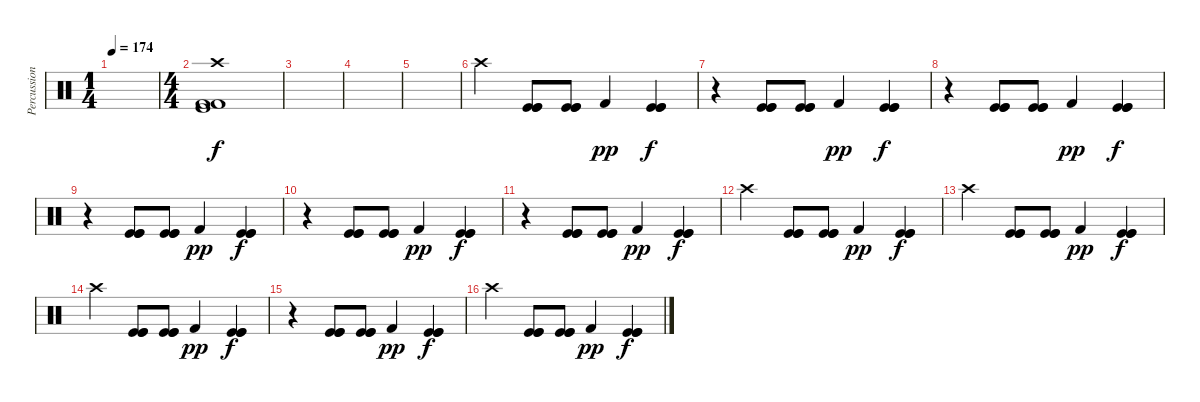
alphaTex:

\track ("Percussions" "Percussion") {instrument percussion}
\staff {score}
\articulation defaults
\ts (1 4)
\tempo 174
\clef neutral
\ks c
|
\ts (4 4)
("Crash high (hit)" "Kick (hit) 2" "Kick (hit) 2" "Kick (hit)").1 |
|
|
|
"Crash high (hit)".4{dy f} ("Kick (hit)" "Kick (hit)" "Kick (hit)").8 ("Kick (hit)" "Kick (hit)" "Kick (hit)").8 "Kick (hit) 2".4{dy pp} ("Kick (hit)" "Kick (hit)" "Kick (hit)").4{dy f} |
r.4 ("Kick (hit)" "Kick (hit)" "Kick (hit)").8 ("Kick (hit)" "Kick (hit)" "Kick (hit)").8 "Kick (hit) 2".4{dy pp} ("Kick (hit)" "Kick (hit)" "Kick (hit)").4{dy f} |
r.4 ("Kick (hit)" "Kick (hit)" "Kick (hit)").8 ("Kick (hit)" "Kick (hit)" "Kick (hit)").8 "Kick (hit) 2".4{dy pp} ("Kick (hit)" "Kick (hit)" "Kick (hit)").4{dy f} |
r.4 ("Kick (hit)" "Kick (hit)" "Kick (hit)").8 ("Kick (hit)" "Kick (hit)" "Kick (hit)").8 "Kick (hit) 2".4{dy pp} ("Kick (hit)" "Kick (hit)" "Kick (hit)").4{dy f} |
r.4 ("Kick (hit)" "Kick (hit)" "Kick (hit)").8 ("Kick (hit)" "Kick (hit)" "Kick (hit)").8 "Kick (hit) 2".4{dy pp} ("Kick (hit)" "Kick (hit)" "Kick (hit)").4{dy f} |
r.4 ("Kick (hit)" "Kick (hit)" "Kick (hit)").8 ("Kick (hit)" "Kick (hit)" "Kick (hit)").8 "Kick (hit) 2".4{dy pp} ("Kick (hit)" "Kick (hit)" "Kick (hit)").4{dy f} |
"Crash high (hit)".4 ("Kick (hit)" "Kick (hit)" "Kick (hit)").8 ("Kick (hit)" "Kick (hit)" "Kick (hit)").8 "Kick (hit) 2".4{dy pp} ("Kick (hit)" "Kick (hit)" "Kick (hit)").4{dy f} |
"Crash high (hit)".4 ("Kick (hit)" "Kick (hit)" "Kick (hit)").8 ("Kick (hit)" "Kick (hit)" "Kick (hit)").8 "Kick (hit) 2".4{dy pp} ("Kick (hit)" "Kick (hit)" "Kick (hit)").4{dy f} |
"Crash high (hit)".4 ("Kick (hit)" "Kick (hit)" "Kick (hit)").8 ("Kick (hit)" "Kick (hit)" "Kick (hit)").8 "Kick (hit) 2".4{dy pp} ("Kick (hit)" "Kick (hit)" "Kick (hit)").4{dy f} |
r.4 ("Kick (hit)" "Kick (hit)" "Kick (hit)").8 ("Kick (hit)" "Kick (hit)" "Kick (hit)").8 "Kick (hit) 2".4{dy pp} ("Kick (hit)" "Kick (hit)" "Kick (hit)").4{dy f} |
"Crash high (hit)".4 ("Kick (hit)" "Kick (hit)" "Kick (hit)").8 ("Kick (hit)" "Kick (hit)" "Kick (hit)").8 "Kick (hit) 2".4{dy pp} ("Kick (hit)" "Kick (hit)" "Kick (hit)").4{dy f}
